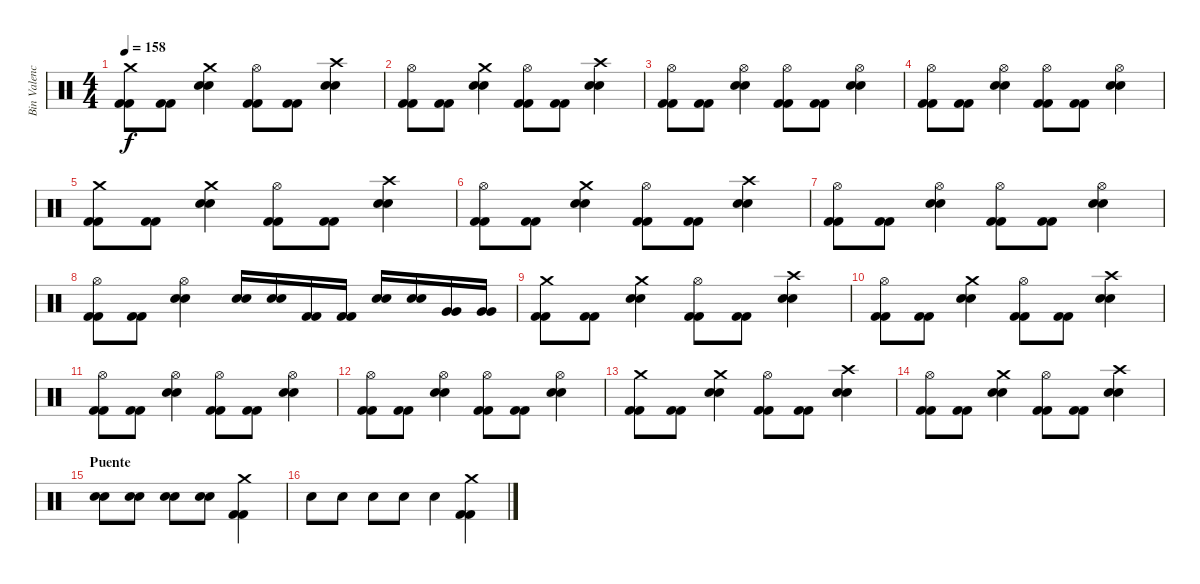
\track ("Bin Valencia (bateria)" "Bin Valenc") {instrument percussion}
\staff {score}
\articulation defaults
\ts (4 4)
\tempo 158
\clef neutral
\ks c
("Crash medium (hit)" "Kick (hit) 2" "Kick (hit) 2").8{dy f} ("Kick (hit) 2" "Kick (hit) 2").8 ("Crash medium (hit)" "Snare (hit) 2" "Snare (hit) 2").4 ("Hi-Hat (open)" "Kick (hit) 2" "Kick (hit) 2").8 ("Kick (hit) 2" "Kick (hit) 2").8 ("Crash high (hit)" "Snare (hit) 2" "Snare (hit) 2").4 |
("Hi-Hat (open)" "Kick (hit) 2" "Kick (hit) 2").8 ("Kick (hit) 2" "Kick (hit) 2").8 ("Crash medium (hit)" "Snare (hit) 2" "Snare (hit) 2").4 ("Hi-Hat (open)" "Kick (hit) 2" "Kick (hit) 2").8 ("Kick (hit) 2" "Kick (hit) 2").8 ("Crash high (hit)" "Snare (hit) 2" "Snare (hit) 2").4 |
("Hi-Hat (open)" "Kick (hit) 2" "Kick (hit) 2").8 ("Kick (hit) 2" "Kick (hit) 2").8 ("Hi-Hat (open)" "Snare (hit) 2" "Snare (hit) 2").4 ("Hi-Hat (open)" "Kick (hit) 2" "Kick (hit) 2").8 ("Kick (hit) 2" "Kick (hit) 2").8 ("Hi-Hat (open)" "Snare (hit) 2" "Snare (hit) 2").4 |
("Hi-Hat (open)" "Kick (hit) 2" "Kick (hit) 2").8 ("Kick (hit) 2" "Kick (hit) 2").8 ("Hi-Hat (open)" "Snare (hit) 2" "Snare (hit) 2").4 ("Hi-Hat (open)" "Kick (hit) 2" "Kick (hit) 2").8 ("Kick (hit) 2" "Kick (hit) 2").8 ("Hi-Hat (open)" "Snare (hit) 2" "Snare (hit) 2").4 |
("Crash medium (hit)" "Kick (hit) 2" "Kick (hit) 2").8 ("Kick (hit) 2" "Kick (hit) 2").8 ("Crash medium (hit)" "Snare (hit) 2" "Snare (hit) 2").4 ("Hi-Hat (open)" "Kick (hit) 2" "Kick (hit) 2").8 ("Kick (hit) 2" "Kick (hit) 2").8 ("Crash high (hit)" "Snare (hit) 2" "Snare (hit) 2").4 |
("Hi-Hat (open)" "Kick (hit) 2" "Kick (hit) 2").8 ("Kick (hit) 2" "Kick (hit) 2").8 ("Crash medium (hit)" "Snare (hit) 2" "Snare (hit) 2").4 ("Hi-Hat (open)" "Kick (hit) 2" "Kick (hit) 2").8 ("Kick (hit) 2" "Kick (hit) 2").8 ("Crash high (hit)" "Snare (hit) 2" "Snare (hit) 2").4 |
("Hi-Hat (open)" "Kick (hit) 2" "Kick (hit) 2").8 ("Kick (hit) 2" "Kick (hit) 2").8 ("Hi-Hat (open)" "Snare (hit) 2" "Snare (hit) 2").4 ("Hi-Hat (open)" "Kick (hit) 2" "Kick (hit) 2").8 ("Kick (hit) 2" "Kick (hit) 2").8 ("Hi-Hat (open)" "Snare (hit) 2" "Snare (hit) 2").4 |
("Hi-Hat (open)" "Kick (hit) 2" "Kick (hit) 2").8 ("Kick (hit) 2" "Kick (hit) 2").8 ("Hi-Hat (open)" "Snare (hit) 2" "Snare (hit) 2").4 ("Snare (hit) 2" "Snare (hit) 2").16 ("Snare (hit) 2" "Snare (hit) 2").16 ("Kick (hit) 2" "Kick (hit) 2").16 ("Kick (hit) 2" "Kick (hit) 2").16 ("Snare (hit) 2" "Snare (hit) 2").16 ("Snare (hit) 2" "Snare (hit) 2").16 ("Very Low Tom (hit)" "Very Low Tom (hit)").16 ("Very Low Tom (hit)" "Very Low Tom (hit)").16 |
("Crash medium (hit)" "Kick (hit) 2" "Kick (hit) 2").8 ("Kick (hit) 2" "Kick (hit) 2").8 ("Crash medium (hit)" "Snare (hit) 2" "Snare (hit) 2").4 ("Hi-Hat (open)" "Kick (hit) 2" "Kick (hit) 2").8 ("Kick (hit) 2" "Kick (hit) 2").8 ("Crash high (hit)" "Snare (hit) 2" "Snare (hit) 2").4 |
("Hi-Hat (open)" "Kick (hit) 2" "Kick (hit) 2").8 ("Kick (hit) 2" "Kick (hit) 2").8 ("Crash medium (hit)" "Snare (hit) 2" "Snare (hit) 2").4 ("Hi-Hat (open)" "Kick (hit) 2" "Kick (hit) 2").8 ("Kick (hit) 2" "Kick (hit) 2").8 ("Crash high (hit)" "Snare (hit) 2" "Snare (hit) 2").4 |
("Hi-Hat (open)" "Kick (hit) 2" "Kick (hit) 2").8 ("Kick (hit) 2" "Kick (hit) 2").8 ("Hi-Hat (open)" "Snare (hit) 2" "Snare (hit) 2").4 ("Hi-Hat (open)" "Kick (hit) 2" "Kick (hit) 2").8 ("Kick (hit) 2" "Kick (hit) 2").8 ("Hi-Hat (open)" "Snare (hit) 2" "Snare (hit) 2").4 |
("Hi-Hat (open)" "Kick (hit) 2" "Kick (hit) 2").8 ("Kick (hit) 2" "Kick (hit) 2").8 ("Hi-Hat (open)" "Snare (hit) 2" "Snare (hit) 2").4 ("Hi-Hat (open)" "Kick (hit) 2" "Kick (hit) 2").8 ("Kick (hit) 2" "Kick (hit) 2").8 ("Hi-Hat (open)" "Snare (hit) 2" "Snare (hit) 2").4 |
("Crash medium (hit)" "Kick (hit) 2" "Kick (hit) 2").8 ("Kick (hit) 2" "Kick (hit) 2").8 ("Crash medium (hit)" "Snare (hit) 2" "Snare (hit) 2").4 ("Hi-Hat (open)" "Kick (hit) 2" "Kick (hit) 2").8 ("Kick (hit) 2" "Kick (hit) 2").8 ("Crash high (hit)" "Snare (hit) 2" "Snare (hit) 2").4 |
("Hi-Hat (open)" "Kick (hit) 2" "Kick (hit) 2").8 ("Kick (hit) 2" "Kick (hit) 2").8 ("Crash medium (hit)" "Snare (hit) 2" "Snare (hit) 2").4 ("Hi-Hat (open)" "Kick (hit) 2" "Kick (hit) 2").8 ("Kick (hit) 2" "Kick (hit) 2").8 ("Crash high (hit)" "Snare (hit) 2" "Snare (hit) 2").4 |
\section ("" "Puente")
("Electric Snare (hit)" "Electric Snare (hit)").8 ("Electric Snare (hit)" "Electric Snare (hit)").8 ("Electric Snare (hit)" "Electric Snare (hit)").8 ("Electric Snare (hit)" "Electric Snare (hit)").8 ("Crash medium (hit)" "Kick (hit) 2" "Kick (hit) 2").4 |
"Electric Snare (hit)".8 "Electric Snare (hit)".8 "Electric Snare (hit)".8 "Electric Snare (hit)".8 "Electric Snare (hit)".4 ("Crash medium (hit)" "Kick (hit) 2" "Kick (hit) 2").4
